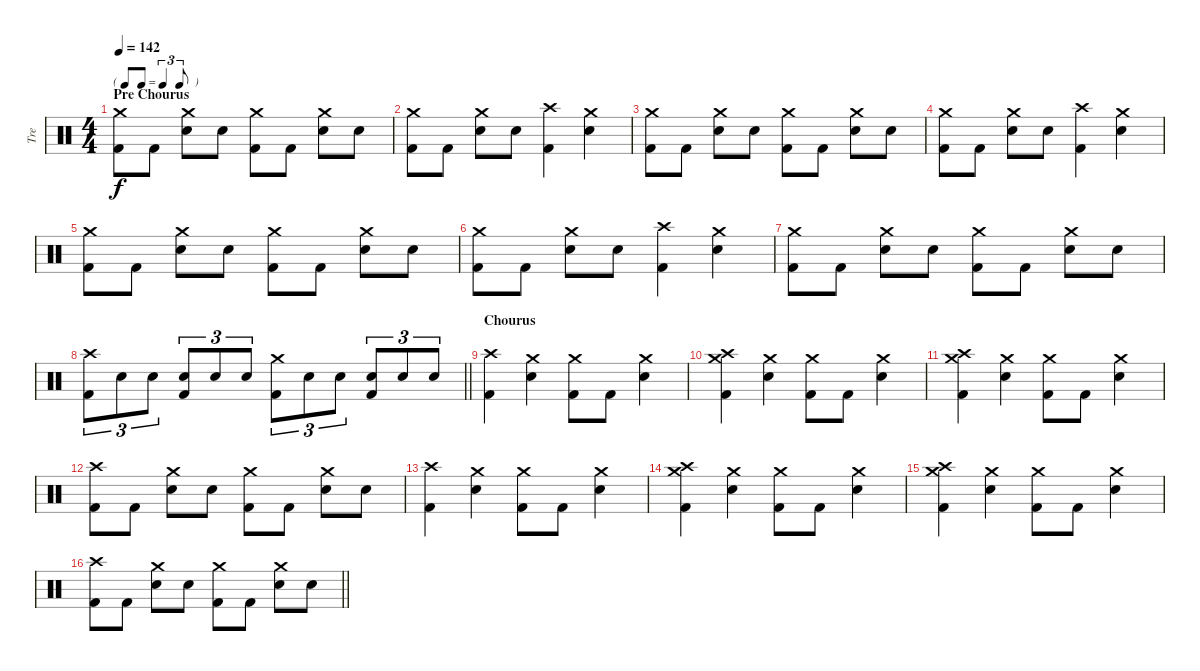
\track ("Tre" "Tre") {instrument percussion}
\staff {score}
\articulation defaults
\ts (4 4)
\tf triplet8th
\section ("" "Pre Chourus")
\tempo 142
\clef neutral
\ks c
("Crash medium (hit)" "Kick (hit) 2").8{dy f} "Kick (hit) 2".8 ("Crash medium (hit)" "Snare (hit) 2").8 "Snare (hit) 2".8 ("Crash medium (hit)" "Kick (hit) 2").8 "Kick (hit) 2".8 ("Crash medium (hit)" "Snare (hit) 2").8 "Snare (hit) 2".8 |
("Crash medium (hit)" "Kick (hit) 2").8 "Kick (hit) 2".8 ("Crash medium (hit)" "Snare (hit) 2").8 "Snare (hit) 2".8 ("Crash high (hit)" "Kick (hit) 2").4 ("Crash medium (hit)" "Snare (hit) 2").4 |
("Crash medium (hit)" "Kick (hit) 2").8 "Kick (hit) 2".8 ("Crash medium (hit)" "Snare (hit) 2").8 "Snare (hit) 2".8 ("Crash medium (hit)" "Kick (hit) 2").8 "Kick (hit) 2".8 ("Crash medium (hit)" "Snare (hit) 2").8 "Snare (hit) 2".8 |
("Crash medium (hit)" "Kick (hit) 2").8 "Kick (hit) 2".8 ("Crash medium (hit)" "Snare (hit) 2").8 "Snare (hit) 2".8 ("Crash high (hit)" "Kick (hit) 2").4 ("Crash medium (hit)" "Snare (hit) 2").4 |
("Crash medium (hit)" "Kick (hit) 2").8 "Kick (hit) 2".8 ("Crash medium (hit)" "Snare (hit) 2").8 "Snare (hit) 2".8 ("Crash medium (hit)" "Kick (hit) 2").8 "Kick (hit) 2".8 ("Crash medium (hit)" "Snare (hit) 2").8 "Snare (hit) 2".8 |
("Crash medium (hit)" "Kick (hit) 2").8 "Kick (hit) 2".8 ("Crash medium (hit)" "Snare (hit) 2").8 "Snare (hit) 2".8 ("Crash high (hit)" "Kick (hit) 2").4 ("Crash medium (hit)" "Snare (hit) 2").4 |
("Crash medium (hit)" "Kick (hit) 2").8 "Kick (hit) 2".8 ("Crash medium (hit)" "Snare (hit) 2").8 "Snare (hit) 2".8 ("Crash medium (hit)" "Kick (hit) 2").8 "Kick (hit) 2".8 ("Crash medium (hit)" "Snare (hit) 2").8 "Snare (hit) 2".8 |
\barLineRight lightlight
("Crash high (hit)" "Kick (hit) 2").8{tu (3 2)} "Snare (hit) 2".8{tu (3 2)} "Snare (hit) 2".8{tu (3 2)} ("Snare (hit) 2" "Kick (hit) 2").8{tu (3 2)} "Snare (hit) 2".8{tu (3 2)} "Snare (hit) 2".8{tu (3 2)} ("Crash medium (hit)" "Kick (hit) 2").8{tu (3 2)} "Snare (hit) 2".8{tu (3 2)} "Snare (hit) 2".8{tu (3 2)} ("Snare (hit) 2" "Kick (hit) 2").8{tu (3 2)} "Snare (hit) 2".8{tu (3 2)} "Snare (hit) 2".8{tu (3 2)} |
\section ("" "Chourus")
("Crash high (hit)" "Kick (hit) 2").4 ("Crash medium (hit)" "Snare (hit) 2").4 ("Crash medium (hit)" "Kick (hit) 2").8 "Kick (hit) 2".8 ("Crash medium (hit)" "Snare (hit) 2").4 |
("Crash medium (hit)" "Crash high (hit)" "Kick (hit) 2").4 ("Crash medium (hit)" "Snare (hit) 2").4 ("Crash medium (hit)" "Kick (hit) 2").8 "Kick (hit) 2".8 ("Crash medium (hit)" "Snare (hit) 2").4 |
("Crash medium (hit)" "Crash high (hit)" "Kick (hit) 2").4 ("Crash medium (hit)" "Snare (hit) 2").4 ("Crash medium (hit)" "Kick (hit) 2").8 "Kick (hit) 2".8 ("Crash medium (hit)" "Snare (hit) 2").4 |
("Crash high (hit)" "Kick (hit) 2").8 "Kick (hit) 2".8 ("Crash medium (hit)" "Snare (hit) 2").8 "Snare (hit) 2".8 ("Crash medium (hit)" "Kick (hit) 2").8 "Kick (hit) 2".8 ("Crash medium (hit)" "Snare (hit) 2").8 "Snare (hit) 2".8 |
("Crash high (hit)" "Kick (hit) 2").4 ("Crash medium (hit)" "Snare (hit) 2").4 ("Crash medium (hit)" "Kick (hit) 2").8 "Kick (hit) 2".8 ("Crash medium (hit)" "Snare (hit) 2").4 |
("Crash medium (hit)" "Crash high (hit)" "Kick (hit) 2").4 ("Crash medium (hit)" "Snare (hit) 2").4 ("Crash medium (hit)" "Kick (hit) 2").8 "Kick (hit) 2".8 ("Crash medium (hit)" "Snare (hit) 2").4 |
("Crash medium (hit)" "Crash high (hit)" "Kick (hit) 2").4 ("Crash medium (hit)" "Snare (hit) 2").4 ("Crash medium (hit)" "Kick (hit) 2").8 "Kick (hit) 2".8 ("Crash medium (hit)" "Snare (hit) 2").4 |
\barLineRight lightlight
("Crash high (hit)" "Kick (hit) 2").8 "Kick (hit) 2".8 ("Crash medium (hit)" "Snare (hit) 2").8 "Snare (hit) 2".8 ("Crash medium (hit)" "Kick (hit) 2").8 "Kick (hit) 2".8 ("Crash medium (hit)" "Snare (hit) 2").8 "Snare (hit) 2".8
